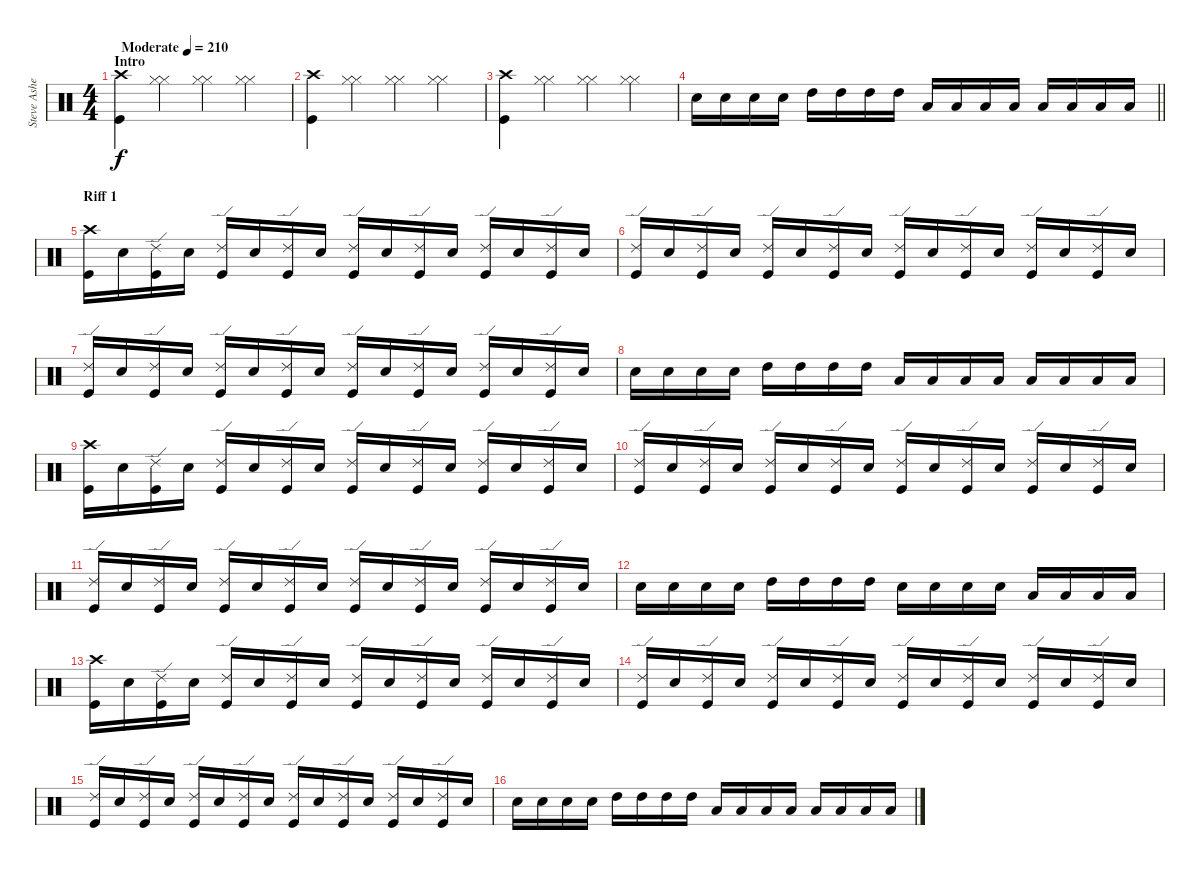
\track ("Steve Asheim" "Steve Ashe") {instrument percussion}
\staff {score}
\articulation defaults
\ts (4 4)
\section ("" "Intro")
\tempo (210 "Moderate")
\clef neutral
\ks c
("Crash high (hit)" "Kick (hit)").4{dy f} ("Hi-Hat (closed)" "Hi-Hat (closed)").4 ("Hi-Hat (closed)" "Hi-Hat (closed)").4 ("Hi-Hat (closed)" "Hi-Hat (closed)").4 |
("Crash high (hit)" "Kick (hit)").4 ("Hi-Hat (closed)" "Hi-Hat (closed)").4 ("Hi-Hat (closed)" "Hi-Hat (closed)").4 ("Hi-Hat (closed)" "Hi-Hat (closed)").4 |
("Crash high (hit)" "Kick (hit)").4 ("Hi-Hat (closed)" "Hi-Hat (closed)").4 ("Hi-Hat (closed)" "Hi-Hat (closed)").4 ("Hi-Hat (closed)" "Hi-Hat (closed)").4 |
\barLineRight lightlight "Snare (hit) 2".16 "Snare (hit) 2".16 "Snare (hit) 2".16 "Snare (hit) 2".16 "High Tom (hit)".16 "High Tom (hit)".16 "High Tom (hit)".16 "High Tom (hit)".16 "Low Tom (hit)".16 "Low Tom (hit)".16 "Low Tom (hit)".16 "Low Tom (hit)".16 "Low Floor Tom (hit)".16 "Low Floor Tom (hit)".16 "Low Floor Tom (hit)".16 "Low Floor Tom (hit)".16
|
\section ("" "Riff 1")
("Crash high (hit)" "Kick (hit)").16 "Snare (hit) 2".16 ("Ride (edge) 2" "Kick (hit)").16 "Snare (hit) 2".16 ("Ride (edge) 2" "Kick (hit)").16 "Snare (hit) 2".16 ("Ride (edge) 2" "Kick (hit)").16 "Snare (hit) 2".16 ("Ride (edge) 2" "Kick (hit)").16 "Snare (hit) 2".16 ("Ride (edge) 2" "Kick (hit)").16 "Snare (hit) 2".16 ("Ride (edge) 2" "Kick (hit)").16 "Snare (hit) 2".16 ("Ride (edge) 2" "Kick (hit)").16 "Snare (hit) 2".16 |
("Ride (edge) 2" "Kick (hit)").16 "Snare (hit) 2".16 ("Ride (edge) 2" "Kick (hit)").16 "Snare (hit) 2".16 ("Ride (edge) 2" "Kick (hit)").16 "Snare (hit) 2".16 ("Ride (edge) 2" "Kick (hit)").16 "Snare (hit) 2".16 ("Ride (edge) 2" "Kick (hit)").16 "Snare (hit) 2".16 ("Ride (edge) 2" "Kick (hit)").16 "Snare (hit) 2".16 ("Ride (edge) 2" "Kick (hit)").16 "Snare (hit) 2".16 ("Ride (edge) 2" "Kick (hit)").16 "Snare (hit) 2".16 |
("Ride (edge) 2" "Kick (hit)").16 "Snare (hit) 2".16 ("Ride (edge) 2" "Kick (hit)").16 "Snare (hit) 2".16 ("Ride (edge) 2" "Kick (hit)").16 "Snare (hit) 2".16 ("Ride (edge) 2" "Kick (hit)").16 "Snare (hit) 2".16 ("Ride (edge) 2" "Kick (hit)").16 "Snare (hit) 2".16 ("Ride (edge) 2" "Kick (hit)").16 "Snare (hit) 2".16 ("Ride (edge) 2" "Kick (hit)").16 "Snare (hit) 2".16 ("Ride (edge) 2" "Kick (hit)").16 "Snare (hit) 2".16 |
"Snare (hit) 2".16 "Snare (hit) 2".16 "Snare (hit) 2".16 "Snare (hit) 2".16 "High Tom (hit)".16 "High Tom (hit)".16 "High Tom (hit)".16 "High Tom (hit)".16 "Low Tom (hit)".16 "Low Tom (hit)".16 "Low Tom (hit)".16 "Low Tom (hit)".16 "Low Floor Tom (hit)".16 "Low Floor Tom (hit)".16 "Low Floor Tom (hit)".16 "Low Floor Tom (hit)".16 |
("Crash high (hit)" "Kick (hit)").16 "Snare (hit) 2".16 ("Ride (edge) 2" "Kick (hit)").16 "Snare (hit) 2".16 ("Ride (edge) 2" "Kick (hit)").16 "Snare (hit) 2".16 ("Ride (edge) 2" "Kick (hit)").16 "Snare (hit) 2".16 ("Ride (edge) 2" "Kick (hit)").16 "Snare (hit) 2".16 ("Ride (edge) 2" "Kick (hit)").16 "Snare (hit) 2".16 ("Ride (edge) 2" "Kick (hit)").16 "Snare (hit) 2".16 ("Ride (edge) 2" "Kick (hit)").16 "Snare (hit) 2".16 |
("Ride (edge) 2" "Kick (hit)").16 "Snare (hit) 2".16 ("Ride (edge) 2" "Kick (hit)").16 "Snare (hit) 2".16 ("Ride (edge) 2" "Kick (hit)").16 "Snare (hit) 2".16 ("Ride (edge) 2" "Kick (hit)").16 "Snare (hit) 2".16 ("Ride (edge) 2" "Kick (hit)").16 "Snare (hit) 2".16 ("Ride (edge) 2" "Kick (hit)").16 "Snare (hit) 2".16 ("Ride (edge) 2" "Kick (hit)").16 "Snare (hit) 2".16 ("Ride (edge) 2" "Kick (hit)").16 "Snare (hit) 2".16 |
("Ride (edge) 2" "Kick (hit)").16 "Snare (hit) 2".16 ("Ride (edge) 2" "Kick (hit)").16 "Snare (hit) 2".16 ("Ride (edge) 2" "Kick (hit)").16 "Snare (hit) 2".16 ("Ride (edge) 2" "Kick (hit)").16 "Snare (hit) 2".16 ("Ride (edge) 2" "Kick (hit)").16 "Snare (hit) 2".16 ("Ride (edge) 2" "Kick (hit)").16 "Snare (hit) 2".16 ("Ride (edge) 2" "Kick (hit)").16 "Snare (hit) 2".16 ("Ride (edge) 2" "Kick (hit)").16 "Snare (hit) 2".16 |
"Snare (hit) 2".16 "Snare (hit) 2".16 "Snare (hit) 2".16 "Snare (hit) 2".16 "High Tom (hit)".16 "High Tom (hit)".16 "High Tom (hit)".16 "High Tom (hit)".16 "Snare (hit) 2".16 "Snare (hit) 2".16 "Snare (hit) 2".16 "Snare (hit) 2".16 "Low Tom (hit)".16 "Low Tom (hit)".16 "Low Tom (hit)".16 "Low Tom (hit)".16 |
("Crash high (hit)" "Kick (hit)").16 "Snare (hit) 2".16 ("Ride (edge) 2" "Kick (hit)").16 "Snare (hit) 2".16 ("Ride (edge) 2" "Kick (hit)").16 "Snare (hit) 2".16 ("Ride (edge) 2" "Kick (hit)").16 "Snare (hit) 2".16 ("Ride (edge) 2" "Kick (hit)").16 "Snare (hit) 2".16 ("Ride (edge) 2" "Kick (hit)").16 "Snare (hit) 2".16 ("Ride (edge) 2" "Kick (hit)").16 "Snare (hit) 2".16 ("Ride (edge) 2" "Kick (hit)").16 "Snare (hit) 2".16 |
("Ride (edge) 2" "Kick (hit)").16 "Snare (hit) 2".16 ("Ride (edge) 2" "Kick (hit)").16 "Snare (hit) 2".16 ("Ride (edge) 2" "Kick (hit)").16 "Snare (hit) 2".16 ("Ride (edge) 2" "Kick (hit)").16 "Snare (hit) 2".16 ("Ride (edge) 2" "Kick (hit)").16 "Snare (hit) 2".16 ("Ride (edge) 2" "Kick (hit)").16 "Snare (hit) 2".16 ("Ride (edge) 2" "Kick (hit)").16 "Snare (hit) 2".16 ("Ride (edge) 2" "Kick (hit)").16 "Snare (hit) 2".16 |
("Ride (edge) 2" "Kick (hit)").16 "Snare (hit) 2".16 ("Ride (edge) 2" "Kick (hit)").16 "Snare (hit) 2".16 ("Ride (edge) 2" "Kick (hit)").16 "Snare (hit) 2".16 ("Ride (edge) 2" "Kick (hit)").16 "Snare (hit) 2".16 ("Ride (edge) 2" "Kick (hit)").16 "Snare (hit) 2".16 ("Ride (edge) 2" "Kick (hit)").16 "Snare (hit) 2".16 ("Ride (edge) 2" "Kick (hit)").16 "Snare (hit) 2".16 ("Ride (edge) 2" "Kick (hit)").16 "Snare (hit) 2".16 |
"Snare (hit) 2".16 "Snare (hit) 2".16 "Snare (hit) 2".16 "Snare (hit) 2".16 "High Tom (hit)".16 "High Tom (hit)".16 "High Tom (hit)".16 "High Tom (hit)".16 "Low Tom (hit)".16 "Low Tom (hit)".16 "Low Tom (hit)".16 "Low Tom (hit)".16 "Low Floor Tom (hit)".16 "Low Floor Tom (hit)".16 "Low Floor Tom (hit)".16 "Low Floor Tom (hit)".16
